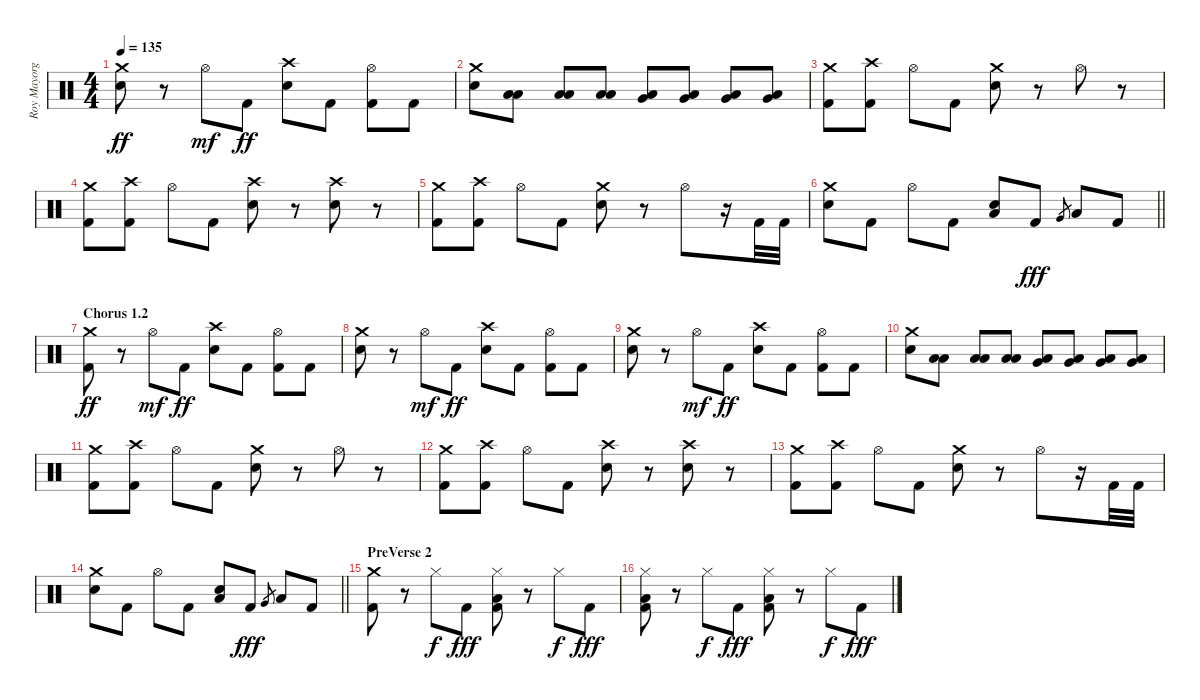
\track ("Roy Mayorga" "Roy Mayorg") {instrument percussion}
\staff {score}
\articulation defaults
\ts (4 4)
\tempo 135
\clef neutral
\ks c
("Crash medium (hit)" "Electric Snare (hit)").8{dy ff} r.8 "Hi-Hat (open)".8{dy mf} "Kick (hit) 2".8{dy ff} ("Crash high (hit)" "Electric Snare (hit)").8 "Kick (hit) 2".8 ("Hi-Hat (open)" "Kick (hit) 2").8 "Kick (hit) 2".8 |
("Crash medium (hit)" "Electric Snare (hit)").8 ("Low Floor Tom (hit)" "Low Floor Tom (hit)").8 ("Low Floor Tom (hit)" "Low Floor Tom (hit)").8 ("Low Floor Tom (hit)" "Low Floor Tom (hit)").8 ("Very Low Tom (hit)" "Low Floor Tom (hit)").8 ("Very Low Tom (hit)" "Low Floor Tom (hit)").8 ("Very Low Tom (hit)" "Low Floor Tom (hit)").8 ("Very Low Tom (hit)" "Low Floor Tom (hit)").8 |
("Crash medium (hit)" "Kick (hit) 2").8 ("Crash high (hit)" "Kick (hit) 2").8 "Hi-Hat (open)".8 "Kick (hit) 2".8 ("Crash medium (hit)" "Electric Snare (hit)").8 r.8 "Hi-Hat (open)".8 r.8 |
("Crash medium (hit)" "Kick (hit) 2").8 ("Crash high (hit)" "Kick (hit) 2").8 "Hi-Hat (open)".8 "Kick (hit) 2".8 ("Crash high (hit)" "Electric Snare (hit)").8 r.8 ("Crash high (hit)" "Electric Snare (hit)").8 r.8 |
("Crash medium (hit)" "Kick (hit) 2").8 ("Crash high (hit)" "Kick (hit) 2").8 "Hi-Hat (open)".8 "Kick (hit) 2".8 ("Crash medium (hit)" "Electric Snare (hit)").8 r.8 "Hi-Hat (open)".8 r.16 "Kick (hit) 2".32 "Kick (hit) 2".32 |
\barLineRight lightlight
("Crash medium (hit)" "Electric Snare (hit)").8 "Kick (hit) 2".8 "Hi-Hat (open)".8 "Kick (hit) 2".8 ("Electric Snare (hit)" "Low Floor Tom (hit)").8 "Kick (hit) 2".8{dy fff} "Very Low Tom (hit)".8{gr} "Low Tom (hit)".8 "Kick (hit) 2".8 |
\section ("" "Chorus 1.2")
("Crash medium (hit)" "Kick (hit) 2").8{dy ff} r.8 "Hi-Hat (open)".8{dy mf} "Kick (hit) 2".8{dy ff} ("Crash high (hit)" "Electric Snare (hit)").8 "Kick (hit) 2".8 ("Hi-Hat (open)" "Kick (hit) 2").8 "Kick (hit) 2".8 |
("Crash medium (hit)" "Electric Snare (hit)").8 r.8 "Hi-Hat (open)".8{dy mf} "Kick (hit) 2".8{dy ff} ("Crash high (hit)" "Electric Snare (hit)").8 "Kick (hit) 2".8 ("Hi-Hat (open)" "Kick (hit) 2").8 "Kick (hit) 2".8 |
("Crash medium (hit)" "Electric Snare (hit)").8 r.8 "Hi-Hat (open)".8{dy mf} "Kick (hit) 2".8{dy ff} ("Crash high (hit)" "Electric Snare (hit)").8 "Kick (hit) 2".8 ("Hi-Hat (open)" "Kick (hit) 2").8 "Kick (hit) 2".8 |
("Crash medium (hit)" "Electric Snare (hit)").8 ("Low Floor Tom (hit)" "Low Floor Tom (hit)").8 ("Low Floor Tom (hit)" "Low Floor Tom (hit)").8 ("Low Floor Tom (hit)" "Low Floor Tom (hit)").8 ("Very Low Tom (hit)" "Low Floor Tom (hit)").8 ("Very Low Tom (hit)" "Low Floor Tom (hit)").8 ("Very Low Tom (hit)" "Low Floor Tom (hit)").8 ("Very Low Tom (hit)" "Low Floor Tom (hit)").8 |
("Crash medium (hit)" "Kick (hit) 2").8 ("Crash high (hit)" "Kick (hit) 2").8 "Hi-Hat (open)".8 "Kick (hit) 2".8 ("Crash medium (hit)" "Electric Snare (hit)").8 r.8 "Hi-Hat (open)".8 r.8 |
("Crash medium (hit)" "Kick (hit) 2").8 ("Crash high (hit)" "Kick (hit) 2").8 "Hi-Hat (open)".8 "Kick (hit) 2".8 ("Crash high (hit)" "Electric Snare (hit)").8 r.8 ("Crash high (hit)" "Electric Snare (hit)").8 r.8 |
("Crash medium (hit)" "Kick (hit) 2").8 ("Crash high (hit)" "Kick (hit) 2").8 "Hi-Hat (open)".8 "Kick (hit) 2".8 ("Crash medium (hit)" "Electric Snare (hit)").8 r.8 "Hi-Hat (open)".8 r.16 "Kick (hit) 2".32 "Kick (hit) 2".32 |
\barLineRight lightlight
("Crash medium (hit)" "Electric Snare (hit)").8 "Kick (hit) 2".8 "Hi-Hat (open)".8 "Kick (hit) 2".8 ("Electric Snare (hit)" "Low Floor Tom (hit)").8 "Kick (hit) 2".8{dy fff} "Very Low Tom (hit)".8{gr} "Low Tom (hit)".8 "Kick (hit) 2".8 |
\section ("" "PreVerse 2")
("Crash medium (hit)" "Kick (hit) 2").8 r.8 "Hi-Hat (closed)".8{dy f} "Kick (hit) 2".8{dy fff} ("Hi-Hat (closed)" "Low Tom (hit)" "Kick (hit) 2").8 r.8 "Hi-Hat (closed)".8{dy f} "Kick (hit) 2".8{dy fff} |
("Hi-Hat (closed)" "Low Floor Tom (hit)" "Kick (hit) 2").8 r.8 "Hi-Hat (closed)".8{dy f} "Kick (hit) 2".8{dy fff} ("Hi-Hat (closed)" "Low Tom (hit)" "Kick (hit) 2").8 r.8 "Hi-Hat (closed)".8{dy f} "Kick (hit) 2".8{dy fff}
